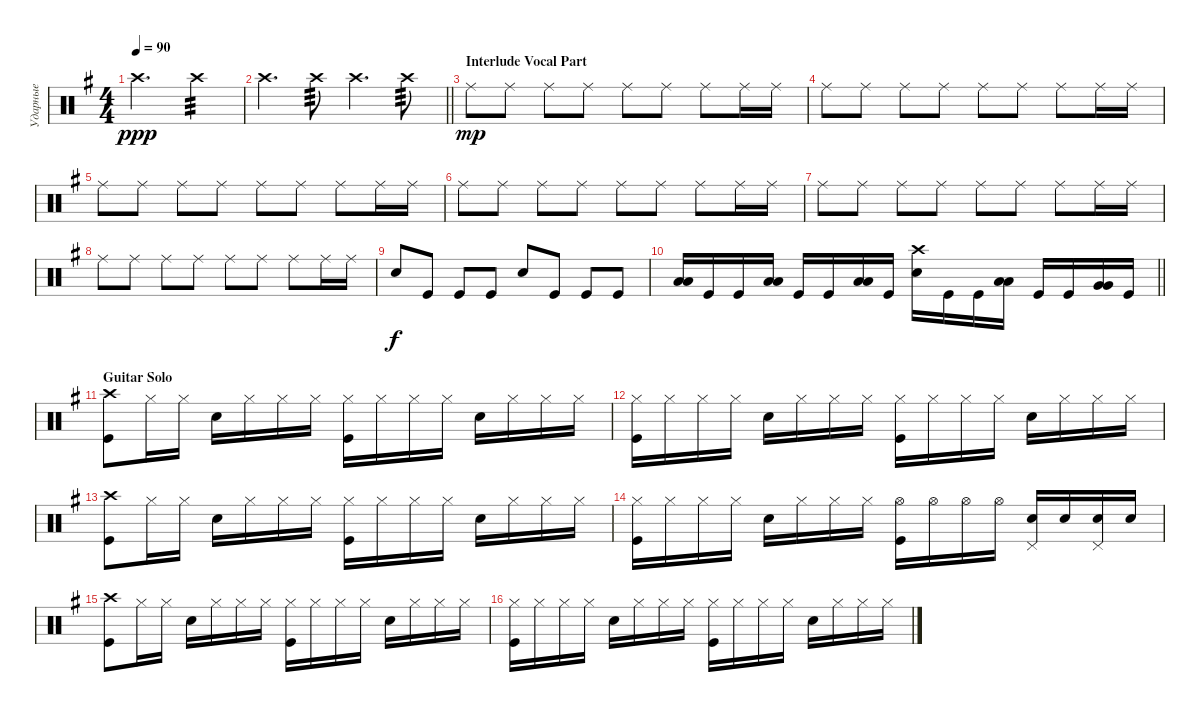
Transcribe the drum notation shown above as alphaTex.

\track ("Ударные" "Ударные") {instrument percussion}
\staff {score}
\articulation defaults
\ts (4 4)
\tempo 90
\clef neutral
\ks eminor "Crash high (hit)".2{d dy ppp} "Crash high (hit)".4{tp 3}
|
\barLineRight lightlight "Crash high (hit)".4{d} "Crash high (hit)".8{tp 3} "Crash high (hit)".4{d} "Crash high (hit)".8{tp 3}
|
\section ("" "Interlude Vocal Part")
"Ride (middle)".8{dy mp} "Ride (middle)".8 "Ride (middle)".8 "Ride (middle)".8 "Ride (middle)".8 "Ride (middle)".8 "Ride (middle)".8 "Ride (middle)".16 "Ride (middle)".16 |
"Ride (middle)".8 "Ride (middle)".8 "Ride (middle)".8 "Ride (middle)".8 "Ride (middle)".8 "Ride (middle)".8 "Ride (middle)".8 "Ride (middle)".16 "Ride (middle)".16 |
"Ride (middle)".8 "Ride (middle)".8 "Ride (middle)".8 "Ride (middle)".8 "Ride (middle)".8 "Ride (middle)".8 "Ride (middle)".8 "Ride (middle)".16 "Ride (middle)".16 |
"Ride (middle)".8 "Ride (middle)".8 "Ride (middle)".8 "Ride (middle)".8 "Ride (middle)".8 "Ride (middle)".8 "Ride (middle)".8 "Ride (middle)".16 "Ride (middle)".16 |
"Ride (middle)".8 "Ride (middle)".8 "Ride (middle)".8 "Ride (middle)".8 "Ride (middle)".8 "Ride (middle)".8 "Ride (middle)".8 "Ride (middle)".16 "Ride (middle)".16 |
"Ride (middle)".8 "Ride (middle)".8 "Ride (middle)".8 "Ride (middle)".8 "Ride (middle)".8 "Ride (middle)".8 "Ride (middle)".8 "Ride (middle)".16 "Ride (middle)".16 |
"Snare (hit) 2".8{dy f} "Kick (hit)".8 "Kick (hit)".8 "Kick (hit)".8 "Snare (hit) 2".8 "Kick (hit)".8 "Kick (hit)".8 "Kick (hit)".8 |
\barLineRight lightlight
("Low Tom (hit)" "Low Tom (hit)").16{bd 60} "Kick (hit)".16 "Kick (hit)".16 ("Low Tom (hit)" "Low Tom (hit)").16{bd 60} "Kick (hit)".16 "Kick (hit)".16 ("Low Tom (hit)" "Low Tom (hit)").16{bd 60} "Kick (hit)".16 ("Snare (hit) 2" "Crash high (hit)").16 "Kick (hit)".16 "Kick (hit)".16 ("Low Tom (hit)" "Low Tom (hit)").16{bd 60} "Kick (hit)".16 "Kick (hit)".16 ("Very Low Tom (hit)" "Very Low Tom (hit)").16{bd 60} "Kick (hit)".16 |
\section ("" "Guitar Solo")
("Kick (hit)" "Crash high (hit)").8 "Hi-Hat (closed)".16 "Hi-Hat (closed)".16 "Snare (hit) 2".16 "Hi-Hat (closed)".16 "Hi-Hat (closed)".16 "Hi-Hat (closed)".16 ("Hi-Hat (closed)" "Kick (hit)").16 "Hi-Hat (closed)".16 "Hi-Hat (closed)".16 "Hi-Hat (closed)".16 "Snare (hit) 2".16 "Hi-Hat (closed)".16 "Hi-Hat (closed)".16 "Hi-Hat (closed)".16 |
("Kick (hit)" "Hi-Hat (closed)").16 "Hi-Hat (closed)".16 "Hi-Hat (closed)".16 "Hi-Hat (closed)".16 "Snare (hit) 2".16 "Hi-Hat (closed)".16 "Hi-Hat (closed)".16 "Hi-Hat (closed)".16 ("Hi-Hat (closed)" "Kick (hit)").16 "Hi-Hat (closed)".16 "Hi-Hat (closed)".16 "Hi-Hat (closed)".16 "Snare (hit) 2".16 "Hi-Hat (closed)".16 "Hi-Hat (closed)".16 "Hi-Hat (closed)".16 |
("Kick (hit)" "Crash high (hit)").8 "Hi-Hat (closed)".16 "Hi-Hat (closed)".16 "Snare (hit) 2".16 "Hi-Hat (closed)".16 "Hi-Hat (closed)".16 "Hi-Hat (closed)".16 ("Hi-Hat (closed)" "Kick (hit)").16 "Hi-Hat (closed)".16 "Hi-Hat (closed)".16 "Hi-Hat (closed)".16 "Snare (hit) 2".16 "Hi-Hat (closed)".16 "Hi-Hat (closed)".16 "Hi-Hat (closed)".16 |
("Kick (hit)" "Hi-Hat (closed)").16 "Hi-Hat (closed)".16 "Hi-Hat (closed)".16 "Hi-Hat (closed)".16 "Snare (hit) 2".16 "Hi-Hat (closed)".16 "Hi-Hat (closed)".16 "Hi-Hat (closed)".16 ("Hi-Hat (open)" "Kick (hit)").16 "Hi-Hat (open)".16 "Hi-Hat (open)".16 "Hi-Hat (open)".16 ("Snare (hit) 2" "Pedal Hi-Hat (hit)").16 "Snare (hit) 2".16 ("Snare (hit) 2" "Pedal Hi-Hat (hit)").16 "Snare (hit) 2".16 |
("Kick (hit)" "Crash high (hit)").8 "Hi-Hat (closed)".16 "Hi-Hat (closed)".16 "Snare (hit) 2".16 "Hi-Hat (closed)".16 "Hi-Hat (closed)".16 "Hi-Hat (closed)".16 ("Hi-Hat (closed)" "Kick (hit)").16 "Hi-Hat (closed)".16 "Hi-Hat (closed)".16 "Hi-Hat (closed)".16 "Snare (hit) 2".16 "Hi-Hat (closed)".16 "Hi-Hat (closed)".16 "Hi-Hat (closed)".16 |
("Kick (hit)" "Hi-Hat (closed)").16 "Hi-Hat (closed)".16 "Hi-Hat (closed)".16 "Hi-Hat (closed)".16 "Snare (hit) 2".16 "Hi-Hat (closed)".16 "Hi-Hat (closed)".16 "Hi-Hat (closed)".16 ("Hi-Hat (closed)" "Kick (hit)").16 "Hi-Hat (closed)".16 "Hi-Hat (closed)".16 "Hi-Hat (closed)".16 "Snare (hit) 2".16 "Hi-Hat (closed)".16 "Hi-Hat (closed)".16 "Hi-Hat (closed)".16
